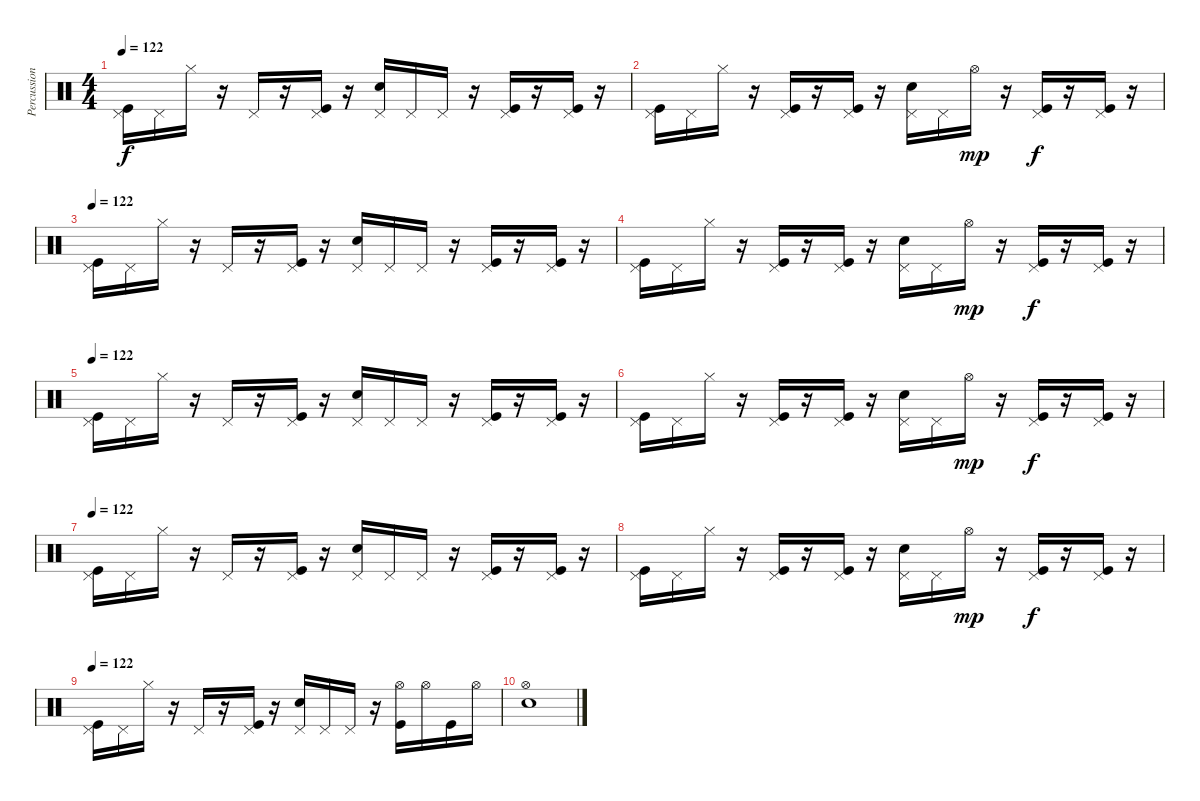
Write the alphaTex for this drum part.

\track ("Percussions" "Percussion") {instrument percussion}
\staff {score}
\articulation defaults
\ts (4 4)
\tempo 122
\clef neutral
\ks c
("Pedal Hi-Hat (hit)" "Kick (hit)").16{dy f} "Pedal Hi-Hat (hit)".16 "Hi-Hat (closed)".16 r.16 "Pedal Hi-Hat (hit)".16 r.16 ("Pedal Hi-Hat (hit)" "Kick (hit)").16 r.16 ("Pedal Hi-Hat (hit)" "Electric Snare (hit)").16 "Pedal Hi-Hat (hit)".16 "Pedal Hi-Hat (hit)".16 r.16 ("Pedal Hi-Hat (hit)" "Kick (hit)").16 r.16 ("Pedal Hi-Hat (hit)" "Kick (hit)").16 r.16 |
("Pedal Hi-Hat (hit)" "Kick (hit)").16 "Pedal Hi-Hat (hit)".16 "Hi-Hat (closed)".16 r.16 ("Pedal Hi-Hat (hit)" "Kick (hit)").16 r.16 ("Pedal Hi-Hat (hit)" "Kick (hit)").16 r.16 ("Pedal Hi-Hat (hit)" "Electric Snare (hit)").16 "Pedal Hi-Hat (hit)".16 "Hi-Hat (open)".16{dy mp} r.16 ("Pedal Hi-Hat (hit)" "Kick (hit)").16{dy f} r.16 ("Pedal Hi-Hat (hit)" "Kick (hit)").16 r.16 |
\tempo 122
("Pedal Hi-Hat (hit)" "Kick (hit)").16 "Pedal Hi-Hat (hit)".16 "Hi-Hat (closed)".16 r.16 "Pedal Hi-Hat (hit)".16 r.16 ("Pedal Hi-Hat (hit)" "Kick (hit)").16 r.16 ("Pedal Hi-Hat (hit)" "Electric Snare (hit)").16 "Pedal Hi-Hat (hit)".16 "Pedal Hi-Hat (hit)".16 r.16 ("Pedal Hi-Hat (hit)" "Kick (hit)").16 r.16 ("Pedal Hi-Hat (hit)" "Kick (hit)").16 r.16 |
("Pedal Hi-Hat (hit)" "Kick (hit)").16 "Pedal Hi-Hat (hit)".16 "Hi-Hat (closed)".16 r.16 ("Pedal Hi-Hat (hit)" "Kick (hit)").16 r.16 ("Pedal Hi-Hat (hit)" "Kick (hit)").16 r.16 ("Pedal Hi-Hat (hit)" "Electric Snare (hit)").16 "Pedal Hi-Hat (hit)".16 "Hi-Hat (open)".16{dy mp} r.16 ("Pedal Hi-Hat (hit)" "Kick (hit)").16{dy f} r.16 ("Pedal Hi-Hat (hit)" "Kick (hit)").16 r.16 |
\tempo 122
("Pedal Hi-Hat (hit)" "Kick (hit)").16 "Pedal Hi-Hat (hit)".16 "Hi-Hat (closed)".16 r.16 "Pedal Hi-Hat (hit)".16 r.16 ("Pedal Hi-Hat (hit)" "Kick (hit)").16 r.16 ("Pedal Hi-Hat (hit)" "Electric Snare (hit)").16 "Pedal Hi-Hat (hit)".16 "Pedal Hi-Hat (hit)".16 r.16 ("Pedal Hi-Hat (hit)" "Kick (hit)").16 r.16 ("Pedal Hi-Hat (hit)" "Kick (hit)").16 r.16 |
("Pedal Hi-Hat (hit)" "Kick (hit)").16 "Pedal Hi-Hat (hit)".16 "Hi-Hat (closed)".16 r.16 ("Pedal Hi-Hat (hit)" "Kick (hit)").16 r.16 ("Pedal Hi-Hat (hit)" "Kick (hit)").16 r.16 ("Pedal Hi-Hat (hit)" "Electric Snare (hit)").16 "Pedal Hi-Hat (hit)".16 "Hi-Hat (open)".16{dy mp} r.16 ("Pedal Hi-Hat (hit)" "Kick (hit)").16{dy f} r.16 ("Pedal Hi-Hat (hit)" "Kick (hit)").16 r.16 |
\tempo 122
("Pedal Hi-Hat (hit)" "Kick (hit)").16 "Pedal Hi-Hat (hit)".16 "Hi-Hat (closed)".16 r.16 "Pedal Hi-Hat (hit)".16 r.16 ("Pedal Hi-Hat (hit)" "Kick (hit)").16 r.16 ("Pedal Hi-Hat (hit)" "Electric Snare (hit)").16 "Pedal Hi-Hat (hit)".16 "Pedal Hi-Hat (hit)".16 r.16 ("Pedal Hi-Hat (hit)" "Kick (hit)").16 r.16 ("Pedal Hi-Hat (hit)" "Kick (hit)").16 r.16 |
("Pedal Hi-Hat (hit)" "Kick (hit)").16 "Pedal Hi-Hat (hit)".16 "Hi-Hat (closed)".16 r.16 ("Pedal Hi-Hat (hit)" "Kick (hit)").16 r.16 ("Pedal Hi-Hat (hit)" "Kick (hit)").16 r.16 ("Pedal Hi-Hat (hit)" "Electric Snare (hit)").16 "Pedal Hi-Hat (hit)".16 "Hi-Hat (open)".16{dy mp} r.16 ("Pedal Hi-Hat (hit)" "Kick (hit)").16{dy f} r.16 ("Pedal Hi-Hat (hit)" "Kick (hit)").16 r.16 |
\tempo 122
("Pedal Hi-Hat (hit)" "Kick (hit)").16 "Pedal Hi-Hat (hit)".16 "Hi-Hat (closed)".16 r.16 "Pedal Hi-Hat (hit)".16 r.16 ("Pedal Hi-Hat (hit)" "Kick (hit)").16 r.16 ("Pedal Hi-Hat (hit)" "Electric Snare (hit)").16 "Pedal Hi-Hat (hit)".16 "Pedal Hi-Hat (hit)".16 r.16 ("Hi-Hat (open)" "Kick (hit)").16 "Hi-Hat (open)".16 "Kick (hit)".16 "Hi-Hat (open)".16 |
("Hi-Hat (open)" "Electric Snare (hit)").1
